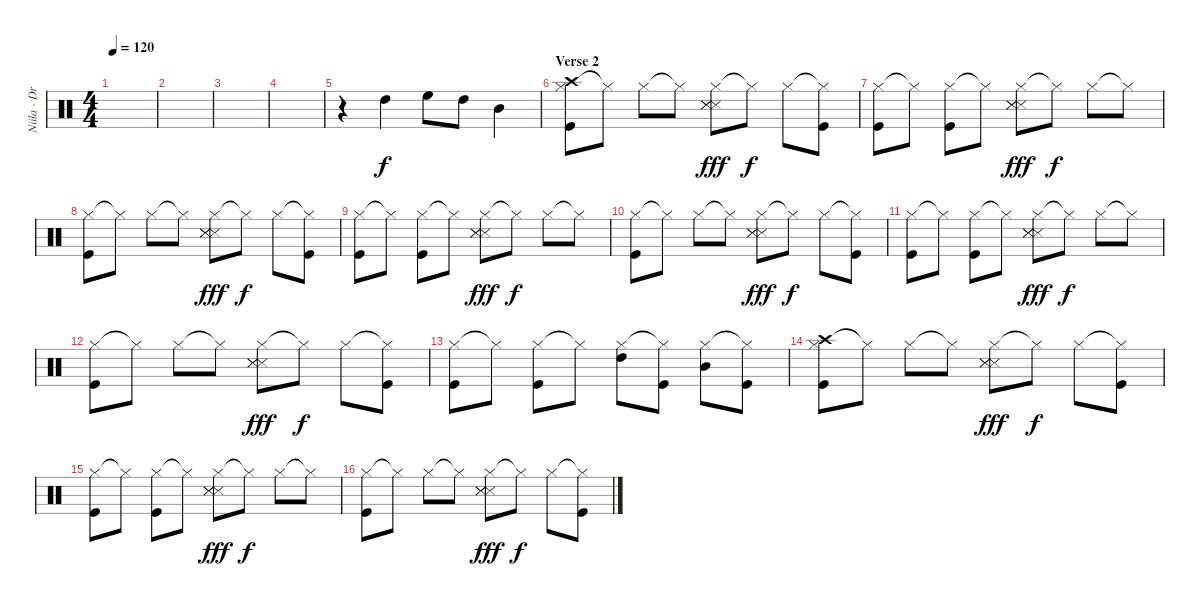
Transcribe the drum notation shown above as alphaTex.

\track ("Niila - Drums" "Niila - Dr") {instrument percussion}
\staff {score}
\articulation defaults
\ts (4 4)
\tempo 120
\clef neutral
\ks c
|
|
|
|
r.4 "High Tom (hit)".4 "High Floor Tom (hit)".8 "High Tom (hit)".8 "Mid Tom (hit)".4 |
\section ("" "Verse 2")
("Crash high (hit)" "Hi-Hat (closed)" "Kick (hit)").8 "Hi-Hat (closed)"{t}.8 "Hi-Hat (closed)".8 "Hi-Hat (closed)"{t}.8 ("Hi-Hat (closed)" "Snare (side stick) 3" "Snare (side stick) 3" "Snare (side stick) 3").8{dy fff} "Hi-Hat (closed)"{t}.8{dy f} "Hi-Hat (closed)".8 ("Hi-Hat (closed)"{t} "Kick (hit)").8 |
("Hi-Hat (closed)" "Kick (hit)").8 "Hi-Hat (closed)"{t}.8 ("Hi-Hat (closed)" "Kick (hit)").8 "Hi-Hat (closed)"{t}.8 ("Hi-Hat (closed)" "Snare (side stick) 3" "Snare (side stick) 3" "Snare (side stick) 3").8{dy fff} "Hi-Hat (closed)"{t}.8{dy f} "Hi-Hat (closed)".8 "Hi-Hat (closed)"{t}.8 |
("Hi-Hat (closed)" "Kick (hit)").8 "Hi-Hat (closed)"{t}.8 "Hi-Hat (closed)".8 "Hi-Hat (closed)"{t}.8 ("Hi-Hat (closed)" "Snare (side stick) 3" "Snare (side stick) 3" "Snare (side stick) 3").8{dy fff} "Hi-Hat (closed)"{t}.8{dy f} "Hi-Hat (closed)".8 ("Hi-Hat (closed)"{t} "Kick (hit)").8 |
("Hi-Hat (closed)" "Kick (hit)").8 "Hi-Hat (closed)"{t}.8 ("Hi-Hat (closed)" "Kick (hit)").8 "Hi-Hat (closed)"{t}.8 ("Hi-Hat (closed)" "Snare (side stick) 3" "Snare (side stick) 3" "Snare (side stick) 3").8{dy fff} "Hi-Hat (closed)"{t}.8{dy f} "Hi-Hat (closed)".8 "Hi-Hat (closed)"{t}.8 |
("Hi-Hat (closed)" "Kick (hit)").8 "Hi-Hat (closed)"{t}.8 "Hi-Hat (closed)".8 "Hi-Hat (closed)"{t}.8 ("Hi-Hat (closed)" "Snare (side stick) 3" "Snare (side stick) 3" "Snare (side stick) 3").8{dy fff} "Hi-Hat (closed)"{t}.8{dy f} "Hi-Hat (closed)".8 ("Hi-Hat (closed)"{t} "Kick (hit)").8 |
("Hi-Hat (closed)" "Kick (hit)").8 "Hi-Hat (closed)"{t}.8 ("Hi-Hat (closed)" "Kick (hit)").8 "Hi-Hat (closed)"{t}.8 ("Hi-Hat (closed)" "Snare (side stick) 3" "Snare (side stick) 3" "Snare (side stick) 3").8{dy fff} "Hi-Hat (closed)"{t}.8{dy f} "Hi-Hat (closed)".8 "Hi-Hat (closed)"{t}.8 |
("Hi-Hat (closed)" "Kick (hit)").8 "Hi-Hat (closed)"{t}.8 "Hi-Hat (closed)".8 "Hi-Hat (closed)"{t}.8 ("Hi-Hat (closed)" "Snare (side stick) 3" "Snare (side stick) 3" "Snare (side stick) 3").8{dy fff} "Hi-Hat (closed)"{t}.8{dy f} "Hi-Hat (closed)".8 ("Hi-Hat (closed)"{t} "Kick (hit)").8 |
("Hi-Hat (closed)" "Kick (hit)").8 "Hi-Hat (closed)"{t}.8 ("Hi-Hat (closed)" "Kick (hit)").8 "Hi-Hat (closed)"{t}.8 ("Hi-Hat (closed)" "High Tom (hit)").8 ("Hi-Hat (closed)"{t} "Kick (hit)").8 ("Hi-Hat (closed)" "Mid Tom (hit)").8 ("Hi-Hat (closed)"{t} "Kick (hit)").8 |
("Crash high (hit)" "Hi-Hat (closed)" "Kick (hit)").8 "Hi-Hat (closed)"{t}.8 "Hi-Hat (closed)".8 "Hi-Hat (closed)"{t}.8 ("Hi-Hat (closed)" "Snare (side stick) 3" "Snare (side stick) 3" "Snare (side stick) 3").8{dy fff} "Hi-Hat (closed)"{t}.8{dy f} "Hi-Hat (closed)".8 ("Hi-Hat (closed)"{t} "Kick (hit)").8 |
("Hi-Hat (closed)" "Kick (hit)").8 "Hi-Hat (closed)"{t}.8 ("Hi-Hat (closed)" "Kick (hit)").8 "Hi-Hat (closed)"{t}.8 ("Hi-Hat (closed)" "Snare (side stick) 3" "Snare (side stick) 3" "Snare (side stick) 3").8{dy fff} "Hi-Hat (closed)"{t}.8{dy f} "Hi-Hat (closed)".8 "Hi-Hat (closed)"{t}.8 |
("Hi-Hat (closed)" "Kick (hit)").8 "Hi-Hat (closed)"{t}.8 "Hi-Hat (closed)".8 "Hi-Hat (closed)"{t}.8 ("Hi-Hat (closed)" "Snare (side stick) 3" "Snare (side stick) 3" "Snare (side stick) 3").8{dy fff} "Hi-Hat (closed)"{t}.8{dy f} "Hi-Hat (closed)".8 ("Hi-Hat (closed)"{t} "Kick (hit)").8
